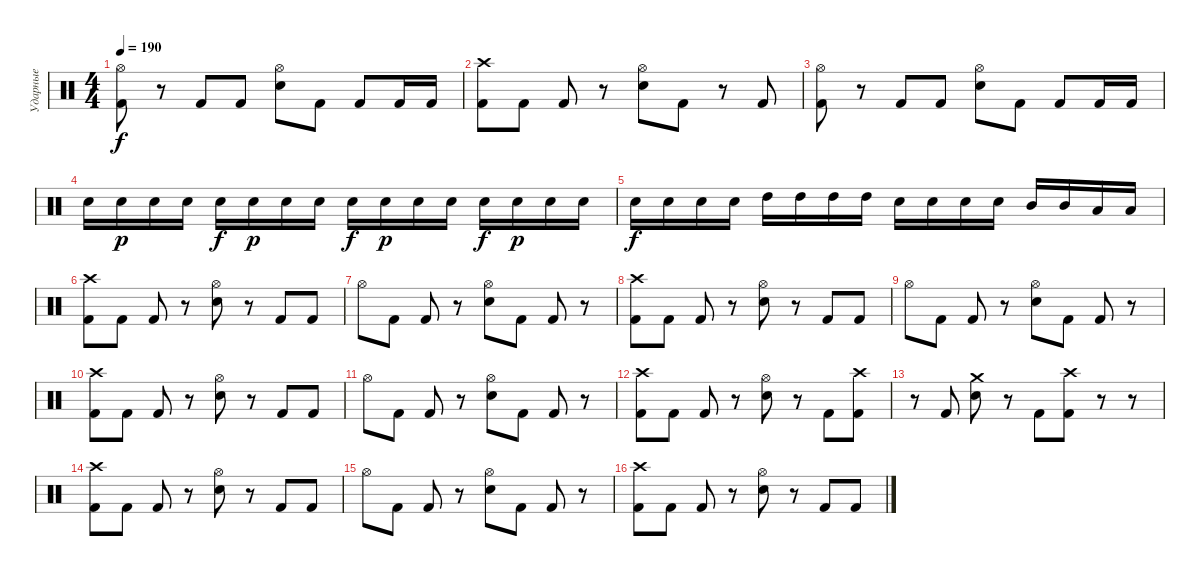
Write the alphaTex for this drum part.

\track ("Ударные" "Ударные") {instrument percussion}
\staff {score}
\articulation defaults
\ts (4 4)
\tempo 190
\clef neutral
\ks c
("Hi-Hat (open)" "Kick (hit) 2").8{dy f} r.8 "Kick (hit) 2".8 "Kick (hit) 2".8 ("Hi-Hat (open)" "Electric Snare (hit)").8 "Kick (hit) 2".8 "Kick (hit) 2".8 "Kick (hit) 2".16 "Kick (hit) 2".16 |
("Crash high (hit)" "Kick (hit) 2").8 "Kick (hit) 2".8 "Kick (hit) 2".8 r.8 ("Hi-Hat (open)" "Electric Snare (hit)").8 "Kick (hit) 2".8 r.8 "Kick (hit) 2".8 |
("Hi-Hat (open)" "Kick (hit) 2").8 r.8 "Kick (hit) 2".8 "Kick (hit) 2".8 ("Hi-Hat (open)" "Electric Snare (hit)").8 "Kick (hit) 2".8 "Kick (hit) 2".8 "Kick (hit) 2".16 "Kick (hit) 2".16 |
"Electric Snare (hit)".16 "Electric Snare (hit)".16{dy p} "Electric Snare (hit)".16 "Electric Snare (hit)".16 "Electric Snare (hit)".16{dy f} "Electric Snare (hit)".16{dy p} "Electric Snare (hit)".16 "Electric Snare (hit)".16 "Electric Snare (hit)".16{dy f} "Electric Snare (hit)".16{dy p} "Electric Snare (hit)".16 "Electric Snare (hit)".16 "Electric Snare (hit)".16{dy f} "Electric Snare (hit)".16{dy p} "Electric Snare (hit)".16 "Electric Snare (hit)".16 |
"Electric Snare (hit)".16{dy f} "Electric Snare (hit)".16 "Electric Snare (hit)".16 "Electric Snare (hit)".16 "High Tom (hit)".16 "High Tom (hit)".16 "High Tom (hit)".16 "High Tom (hit)".16 "Electric Snare (hit)".16 "Electric Snare (hit)".16 "Electric Snare (hit)".16 "Electric Snare (hit)".16 "Mid Tom (hit)".16 "Mid Tom (hit)".16 "Low Tom (hit)".16 "Low Tom (hit)".16 |
("Crash high (hit)" "Kick (hit) 2").8 "Kick (hit) 2".8 "Kick (hit) 2".8 r.8 ("Hi-Hat (open)" "Electric Snare (hit)").8 r.8 "Kick (hit) 2".8 "Kick (hit) 2".8 |
"Hi-Hat (open)".8 "Kick (hit) 2".8 "Kick (hit) 2".8 r.8 ("Hi-Hat (open)" "Electric Snare (hit)").8 "Kick (hit) 2".8 "Kick (hit) 2".8 r.8 |
("Crash high (hit)" "Kick (hit) 2").8 "Kick (hit) 2".8 "Kick (hit) 2".8 r.8 ("Hi-Hat (open)" "Electric Snare (hit)").8 r.8 "Kick (hit) 2".8 "Kick (hit) 2".8 |
"Hi-Hat (open)".8 "Kick (hit) 2".8 "Kick (hit) 2".8 r.8 ("Hi-Hat (open)" "Electric Snare (hit)").8 "Kick (hit) 2".8 "Kick (hit) 2".8 r.8 |
("Crash high (hit)" "Kick (hit) 2").8 "Kick (hit) 2".8 "Kick (hit) 2".8 r.8 ("Hi-Hat (open)" "Electric Snare (hit)").8 r.8 "Kick (hit) 2".8 "Kick (hit) 2".8 |
"Hi-Hat (open)".8 "Kick (hit) 2".8 "Kick (hit) 2".8 r.8 ("Hi-Hat (open)" "Electric Snare (hit)").8 "Kick (hit) 2".8 "Kick (hit) 2".8 r.8 |
("Crash high (hit)" "Kick (hit) 2").8 "Kick (hit) 2".8 "Kick (hit) 2".8 r.8 ("Hi-Hat (open)" "Electric Snare (hit)").8 r.8 "Kick (hit) 2".8 ("Crash high (hit)" "Kick (hit) 2").8 |
r.8 "Kick (hit) 2".8 ("Crash medium (hit)" "Electric Snare (hit)").8 r.8 "Kick (hit) 2".8 ("Crash high (hit)" "Kick (hit) 2").8 r.8 r.8 |
("Crash high (hit)" "Kick (hit) 2").8 "Kick (hit) 2".8 "Kick (hit) 2".8 r.8 ("Hi-Hat (open)" "Electric Snare (hit)").8 r.8 "Kick (hit) 2".8 "Kick (hit) 2".8 |
"Hi-Hat (open)".8 "Kick (hit) 2".8 "Kick (hit) 2".8 r.8 ("Hi-Hat (open)" "Electric Snare (hit)").8 "Kick (hit) 2".8 "Kick (hit) 2".8 r.8 |
("Crash high (hit)" "Kick (hit) 2").8 "Kick (hit) 2".8 "Kick (hit) 2".8 r.8 ("Hi-Hat (open)" "Electric Snare (hit)").8 r.8 "Kick (hit) 2".8 "Kick (hit) 2".8
